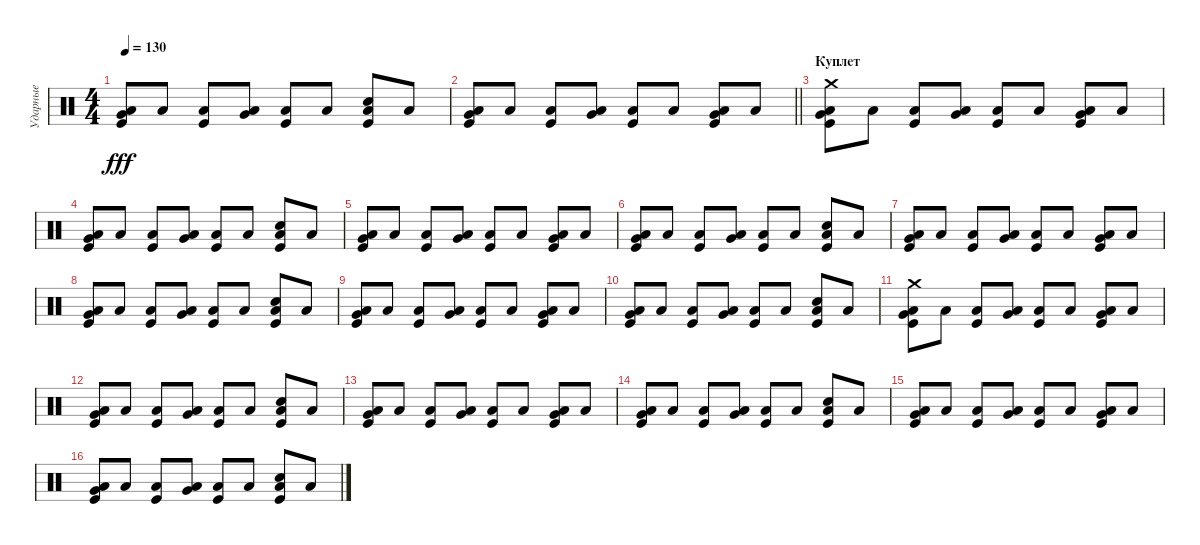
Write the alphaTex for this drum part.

\track ("Ударные" "Ударные") {instrument percussion}
\staff {score}
\articulation defaults
\ts (4 4)
\tempo 130
\clef neutral
\ks c
("Kick (hit)" "Low Tom (hit)" "Very Low Tom (hit)").8{dy fff} "Low Tom (hit)".8 ("Kick (hit)" "Low Tom (hit)").8 ("Low Tom (hit)" "Very Low Tom (hit)").8 ("Kick (hit)" "Low Tom (hit)").8 "Low Tom (hit)".8 ("Kick (hit)" "Low Tom (hit)" "Electric Snare (hit)").8 "Low Tom (hit)".8 |
\barLineRight lightlight
("Kick (hit)" "Low Tom (hit)" "Very Low Tom (hit)").8 "Low Tom (hit)".8 ("Kick (hit)" "Low Tom (hit)").8 ("Low Tom (hit)" "Very Low Tom (hit)").8 ("Kick (hit)" "Low Tom (hit)").8 "Low Tom (hit)".8 ("Kick (hit)" "Low Tom (hit)" "Very Low Tom (hit)").8 "Low Tom (hit)".8 |
\section ("" "Куплет")
("Kick (hit)" "Crash medium (hit)" "Low Tom (hit)" "Very Low Tom (hit)").8 "Low Tom (hit)".8 ("Kick (hit)" "Low Tom (hit)").8 ("Low Tom (hit)" "Very Low Tom (hit)").8 ("Kick (hit)" "Low Tom (hit)").8 "Low Tom (hit)".8 ("Kick (hit)" "Low Tom (hit)" "Very Low Tom (hit)").8 "Low Tom (hit)".8 |
("Kick (hit)" "Low Tom (hit)" "Very Low Tom (hit)").8 "Low Tom (hit)".8 ("Kick (hit)" "Low Tom (hit)").8 ("Low Tom (hit)" "Very Low Tom (hit)").8 ("Kick (hit)" "Low Tom (hit)").8 "Low Tom (hit)".8 ("Kick (hit)" "Low Tom (hit)" "Electric Snare (hit)").8 "Low Tom (hit)".8 |
("Kick (hit)" "Low Tom (hit)" "Very Low Tom (hit)").8 "Low Tom (hit)".8 ("Kick (hit)" "Low Tom (hit)").8 ("Low Tom (hit)" "Very Low Tom (hit)").8 ("Kick (hit)" "Low Tom (hit)").8 "Low Tom (hit)".8 ("Kick (hit)" "Low Tom (hit)" "Very Low Tom (hit)").8 "Low Tom (hit)".8 |
("Kick (hit)" "Low Tom (hit)" "Very Low Tom (hit)").8 "Low Tom (hit)".8 ("Kick (hit)" "Low Tom (hit)").8 ("Low Tom (hit)" "Very Low Tom (hit)").8 ("Kick (hit)" "Low Tom (hit)").8 "Low Tom (hit)".8 ("Kick (hit)" "Low Tom (hit)" "Electric Snare (hit)").8 "Low Tom (hit)".8 |
("Kick (hit)" "Low Tom (hit)" "Very Low Tom (hit)").8 "Low Tom (hit)".8 ("Kick (hit)" "Low Tom (hit)").8 ("Low Tom (hit)" "Very Low Tom (hit)").8 ("Kick (hit)" "Low Tom (hit)").8 "Low Tom (hit)".8 ("Kick (hit)" "Low Tom (hit)" "Very Low Tom (hit)").8 "Low Tom (hit)".8 |
("Kick (hit)" "Low Tom (hit)" "Very Low Tom (hit)").8 "Low Tom (hit)".8 ("Kick (hit)" "Low Tom (hit)").8 ("Low Tom (hit)" "Very Low Tom (hit)").8 ("Kick (hit)" "Low Tom (hit)").8 "Low Tom (hit)".8 ("Kick (hit)" "Low Tom (hit)" "Electric Snare (hit)").8 "Low Tom (hit)".8 |
("Kick (hit)" "Low Tom (hit)" "Very Low Tom (hit)").8 "Low Tom (hit)".8 ("Kick (hit)" "Low Tom (hit)").8 ("Low Tom (hit)" "Very Low Tom (hit)").8 ("Kick (hit)" "Low Tom (hit)").8 "Low Tom (hit)".8 ("Kick (hit)" "Low Tom (hit)" "Very Low Tom (hit)").8 "Low Tom (hit)".8 |
("Kick (hit)" "Low Tom (hit)" "Very Low Tom (hit)").8 "Low Tom (hit)".8 ("Kick (hit)" "Low Tom (hit)").8 ("Low Tom (hit)" "Very Low Tom (hit)").8 ("Kick (hit)" "Low Tom (hit)").8 "Low Tom (hit)".8 ("Kick (hit)" "Low Tom (hit)" "Electric Snare (hit)").8 "Low Tom (hit)".8 |
("Kick (hit)" "Low Tom (hit)" "Very Low Tom (hit)" "Crash medium (hit)").8 "Low Tom (hit)".8 ("Kick (hit)" "Low Tom (hit)").8 ("Low Tom (hit)" "Very Low Tom (hit)").8 ("Kick (hit)" "Low Tom (hit)").8 "Low Tom (hit)".8 ("Kick (hit)" "Low Tom (hit)" "Very Low Tom (hit)").8 "Low Tom (hit)".8 |
("Kick (hit)" "Low Tom (hit)" "Very Low Tom (hit)").8 "Low Tom (hit)".8 ("Kick (hit)" "Low Tom (hit)").8 ("Low Tom (hit)" "Very Low Tom (hit)").8 ("Kick (hit)" "Low Tom (hit)").8 "Low Tom (hit)".8 ("Kick (hit)" "Low Tom (hit)" "Electric Snare (hit)").8 "Low Tom (hit)".8 |
("Kick (hit)" "Low Tom (hit)" "Very Low Tom (hit)").8 "Low Tom (hit)".8 ("Kick (hit)" "Low Tom (hit)").8 ("Low Tom (hit)" "Very Low Tom (hit)").8 ("Kick (hit)" "Low Tom (hit)").8 "Low Tom (hit)".8 ("Kick (hit)" "Low Tom (hit)" "Very Low Tom (hit)").8 "Low Tom (hit)".8 |
("Kick (hit)" "Low Tom (hit)" "Very Low Tom (hit)").8 "Low Tom (hit)".8 ("Kick (hit)" "Low Tom (hit)").8 ("Low Tom (hit)" "Very Low Tom (hit)").8 ("Kick (hit)" "Low Tom (hit)").8 "Low Tom (hit)".8 ("Kick (hit)" "Low Tom (hit)" "Electric Snare (hit)").8 "Low Tom (hit)".8 |
("Kick (hit)" "Low Tom (hit)" "Very Low Tom (hit)").8 "Low Tom (hit)".8 ("Kick (hit)" "Low Tom (hit)").8 ("Low Tom (hit)" "Very Low Tom (hit)").8 ("Kick (hit)" "Low Tom (hit)").8 "Low Tom (hit)".8 ("Kick (hit)" "Low Tom (hit)" "Very Low Tom (hit)").8 "Low Tom (hit)".8 |
("Kick (hit)" "Low Tom (hit)" "Very Low Tom (hit)").8 "Low Tom (hit)".8 ("Kick (hit)" "Low Tom (hit)").8 ("Low Tom (hit)" "Very Low Tom (hit)").8 ("Kick (hit)" "Low Tom (hit)").8 "Low Tom (hit)".8 ("Kick (hit)" "Low Tom (hit)" "Electric Snare (hit)").8 "Low Tom (hit)".8
